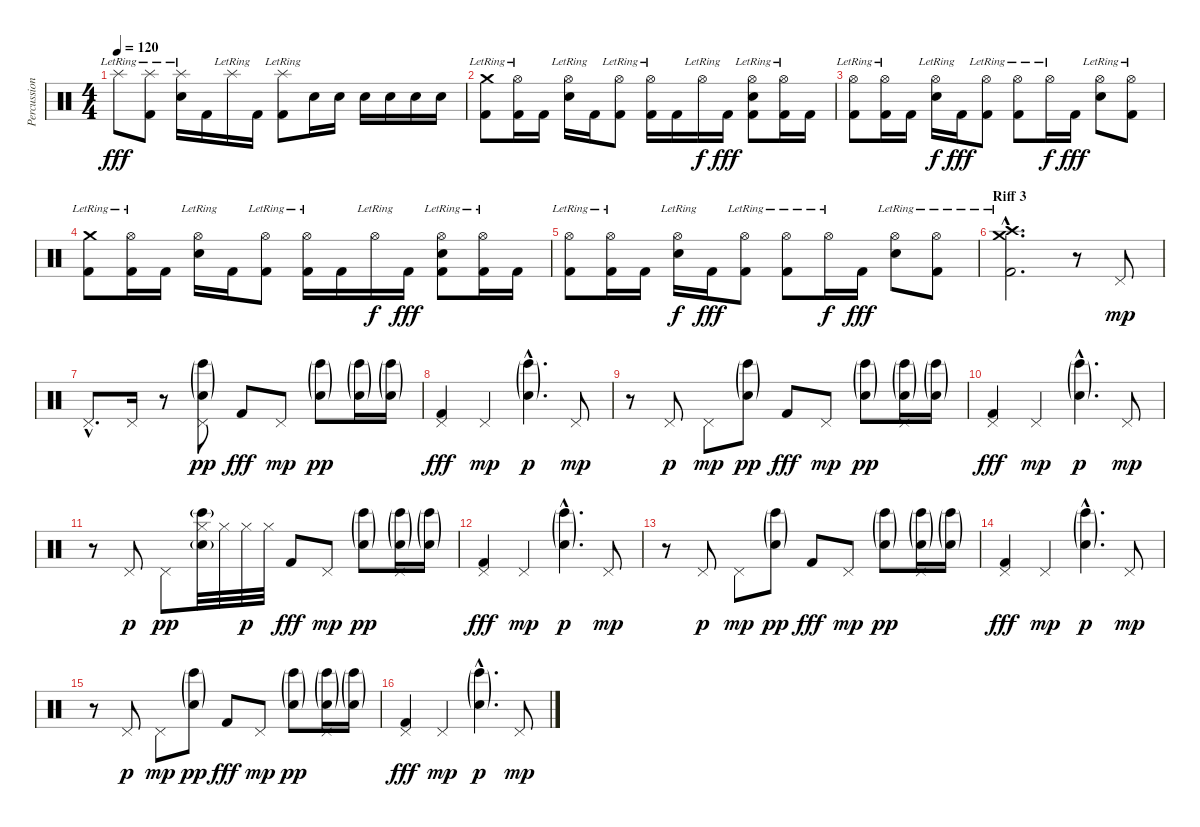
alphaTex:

\track ("Percussions" "Percussion") {instrument percussion}
\staff {score}
\articulation defaults
\ts (4 4)
\tempo 120
\clef neutral
\ks c "Splash (hit)"{lr}.8{dy fff}
("Splash (hit)"{lr} "Kick (hit) 2").8 ("Splash (hit)"{lr} "Electric Snare (hit)").16 "Kick (hit) 2".16 "Splash (hit)"{lr}.16 "Kick (hit) 2".16 ("Splash (hit)"{lr} "Kick (hit) 2").8 "Electric Snare (hit)".16 "Electric Snare (hit)".16 "Electric Snare (hit)".16 "Electric Snare (hit)".16 "Electric Snare (hit)".16 "Electric Snare (hit)".16 |
("Crash medium (hit)"{lr} "Kick (hit) 2").8 ("Hi-Hat (open)"{lr} "Kick (hit) 2").16 "Kick (hit) 2".16 ("Hi-Hat (open)"{lr} "Electric Snare (hit)").16 "Kick (hit) 2".16 ("Hi-Hat (open)"{lr} "Kick (hit) 2").8 ("Hi-Hat (open)"{lr} "Kick (hit) 2").16 "Kick (hit) 2".16 "Hi-Hat (open)"{lr}.16{dy f} "Kick (hit) 2".16{dy fff} ("Hi-Hat (open)"{lr} "Electric Snare (hit)" "Kick (hit) 2").8 ("Hi-Hat (open)"{lr} "Kick (hit) 2").16 "Kick (hit) 2".16 |
("Hi-Hat (open)"{lr} "Kick (hit) 2").8 ("Hi-Hat (open)"{lr} "Kick (hit) 2").16 "Kick (hit) 2".16 ("Hi-Hat (open)"{lr} "Electric Snare (hit)").16{dy f} "Kick (hit) 2".16{dy fff} ("Hi-Hat (open)"{lr} "Kick (hit) 2").8 ("Hi-Hat (open)"{lr} "Kick (hit) 2").8 "Hi-Hat (open)"{lr}.16{dy f} "Kick (hit) 2".16{dy fff} ("Hi-Hat (open)"{lr} "Electric Snare (hit)").8 ("Hi-Hat (open)"{lr} "Kick (hit) 2").8 |
("Crash medium (hit)"{lr} "Kick (hit) 2").8 ("Hi-Hat (open)"{lr} "Kick (hit) 2").16 "Kick (hit) 2".16 ("Hi-Hat (open)"{lr} "Electric Snare (hit)").16 "Kick (hit) 2".16 ("Hi-Hat (open)"{lr} "Kick (hit) 2").8 ("Hi-Hat (open)"{lr} "Kick (hit) 2").16 "Kick (hit) 2".16 "Hi-Hat (open)"{lr}.16{dy f} "Kick (hit) 2".16{dy fff} ("Hi-Hat (open)"{lr} "Electric Snare (hit)" "Kick (hit) 2").8 ("Hi-Hat (open)"{lr} "Kick (hit) 2").16 "Kick (hit) 2".16 |
("Hi-Hat (open)"{lr} "Kick (hit) 2").8 ("Hi-Hat (open)"{lr} "Kick (hit) 2").16 "Kick (hit) 2".16 ("Hi-Hat (open)"{lr} "Electric Snare (hit)").16{dy f} "Kick (hit) 2".16{dy fff} ("Hi-Hat (open)"{lr} "Kick (hit) 2").8 ("Hi-Hat (open)"{lr} "Kick (hit) 2").8 "Hi-Hat (open)"{lr}.16{dy f} "Kick (hit) 2".16{dy fff} ("Hi-Hat (open)"{lr} "Electric Snare (hit)").8 ("Hi-Hat (open)"{lr} "Kick (hit) 2").8 |
\section ("" "Riff 3")
("Crash high (hit)"{hac lr} "Crash medium (hit)"{hac lr} "Kick (hit) 2"{hac}).2{d} r.8 "Pedal Hi-Hat (hit)".8{dy mp} |
"Pedal Hi-Hat (hit)"{hac}.8{d} "Pedal Hi-Hat (hit)".16 r.8 ("Pedal Hi-Hat (hit)" "Bongo High (hit)"{g} "Electric Snare (hit)"{g}).8{dy pp} "Kick (hit) 2".8{dy fff} "Pedal Hi-Hat (hit)".8{dy mp} ("Bongo High (hit)"{g} "Electric Snare (hit)"{g}).8{dy pp} ("Bongo High (hit)"{g} "Electric Snare (hit)"{g}).16 ("Bongo High (hit)"{g} "Electric Snare (hit)"{g}).16 |
("Pedal Hi-Hat (hit)" "Kick (hit) 2").4{dy fff} "Pedal Hi-Hat (hit)".4{dy mp} ("Bongo High (hit)"{g hac} "Electric Snare (hit)"{g hac}).4{d dy p} "Pedal Hi-Hat (hit)".8{dy mp} |
r.8 "Pedal Hi-Hat (hit)".8{dy p} "Pedal Hi-Hat (hit)".8{dy mp} ("Bongo High (hit)"{g} "Electric Snare (hit)"{g}).8{dy pp} "Kick (hit) 2".8{dy fff} "Pedal Hi-Hat (hit)".8{dy mp} ("Bongo High (hit)"{g} "Electric Snare (hit)"{g}).8{dy pp} ("Pedal Hi-Hat (hit)" "Bongo High (hit)"{g} "Electric Snare (hit)"{g}).16 ("Bongo High (hit)"{g} "Electric Snare (hit)"{g}).16 |
("Pedal Hi-Hat (hit)" "Kick (hit) 2").4{dy fff} "Pedal Hi-Hat (hit)".4{dy mp} ("Bongo High (hit)"{g hac} "Electric Snare (hit)"{g hac}).4{d dy p} "Pedal Hi-Hat (hit)".8{dy mp} |
r.8 "Pedal Hi-Hat (hit)".8{dy p} "Pedal Hi-Hat (hit)".8{dy pp} ("Hi-Hat (closed)" "Bongo High (hit)"{g} "Electric Snare (hit)"{g}).32 "Hi-Hat (closed)".32 "Hi-Hat (closed)".32{dy p} "Hi-Hat (closed)".32 "Kick (hit) 2".8{dy fff} "Pedal Hi-Hat (hit)".8{dy mp} ("Bongo High (hit)"{g} "Electric Snare (hit)"{g}).8{dy pp} ("Pedal Hi-Hat (hit)" "Bongo High (hit)"{g} "Electric Snare (hit)"{g}).16 ("Bongo High (hit)"{g} "Electric Snare (hit)"{g}).16 |
("Pedal Hi-Hat (hit)" "Kick (hit) 2").4{dy fff} "Pedal Hi-Hat (hit)".4{dy mp} ("Bongo High (hit)"{g hac} "Electric Snare (hit)"{g hac}).4{d dy p} "Pedal Hi-Hat (hit)".8{dy mp} |
r.8 "Pedal Hi-Hat (hit)".8{dy p} "Pedal Hi-Hat (hit)".8{dy mp} ("Bongo High (hit)"{g} "Electric Snare (hit)"{g}).8{dy pp} "Kick (hit) 2".8{dy fff} "Pedal Hi-Hat (hit)".8{dy mp} ("Bongo High (hit)"{g} "Electric Snare (hit)"{g}).8{dy pp} ("Pedal Hi-Hat (hit)" "Bongo High (hit)"{g} "Electric Snare (hit)"{g}).16 ("Bongo High (hit)"{g} "Electric Snare (hit)"{g}).16 |
("Pedal Hi-Hat (hit)" "Kick (hit) 2").4{dy fff} "Pedal Hi-Hat (hit)".4{dy mp} ("Bongo High (hit)"{g hac} "Electric Snare (hit)"{g hac}).4{d dy p} "Pedal Hi-Hat (hit)".8{dy mp} |
r.8 "Pedal Hi-Hat (hit)".8{dy p} "Pedal Hi-Hat (hit)".8{dy mp} ("Bongo High (hit)"{g} "Electric Snare (hit)"{g}).8{dy pp} "Kick (hit) 2".8{dy fff} "Pedal Hi-Hat (hit)".8{dy mp} ("Bongo High (hit)"{g} "Electric Snare (hit)"{g}).8{dy pp} ("Pedal Hi-Hat (hit)" "Bongo High (hit)"{g} "Electric Snare (hit)"{g}).16 ("Bongo High (hit)"{g} "Electric Snare (hit)"{g}).16 |
("Pedal Hi-Hat (hit)" "Kick (hit) 2").4{dy fff} "Pedal Hi-Hat (hit)".4{dy mp} ("Bongo High (hit)"{g hac} "Electric Snare (hit)"{g hac}).4{d dy p} "Pedal Hi-Hat (hit)".8{dy mp}
